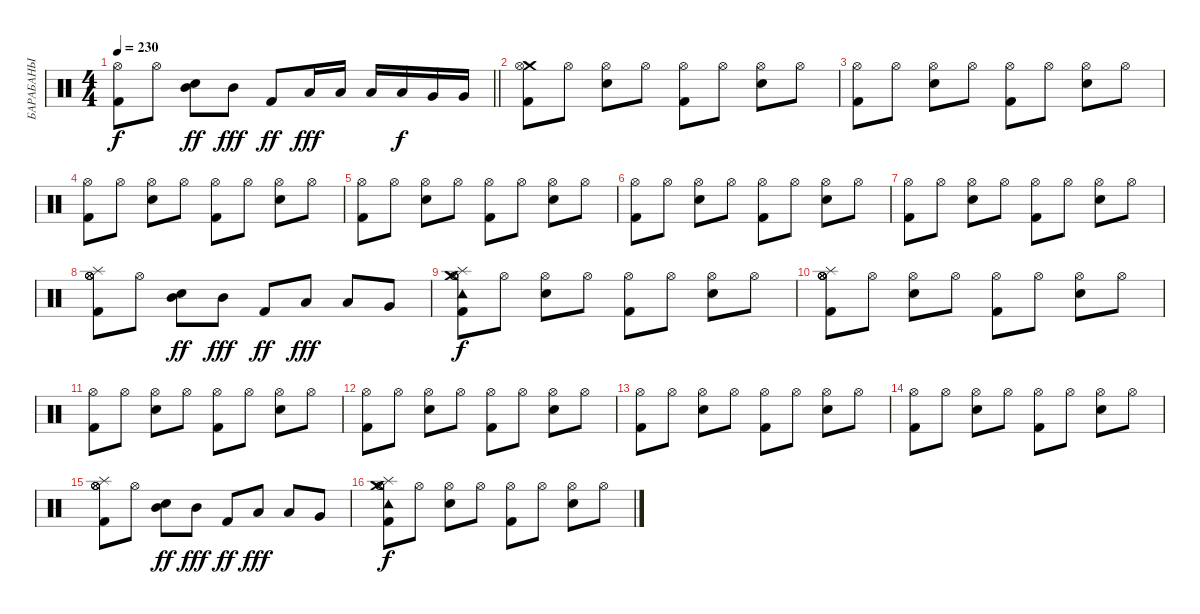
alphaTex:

\track ("БАРАБАНЫ" "БАРАБАНЫ") {instrument percussion}
\staff {score}
\articulation defaults
\ts (4 4)
\tempo 230
\clef neutral
\barLineRight lightlight
\ks c
("Hi-Hat (open)" "Kick (hit) 2").8{dy f} "Hi-Hat (open)".8 ("Mid Tom (hit)" "Electric Snare (hit)").8{dy ff} "Mid Tom (hit)".8{dy fff} "Kick (hit) 2".8{dy ff} "Low Tom (hit)".16{dy fff} "Low Tom (hit)".16 "Low Tom (hit)".16 "Low Tom (hit)".16{dy f} "Very Low Tom (hit)".16 "Very Low Tom (hit)".16 |
("Crash medium (hit)" "Hi-Hat (open)" "Kick (hit) 2").8 "Hi-Hat (open)".8 ("Hi-Hat (open)" "Electric Snare (hit)").8 "Hi-Hat (open)".8 ("Hi-Hat (open)" "Kick (hit) 2").8 "Hi-Hat (open)".8 ("Hi-Hat (open)" "Electric Snare (hit)").8 "Hi-Hat (open)".8 |
("Hi-Hat (open)" "Kick (hit) 2").8 "Hi-Hat (open)".8 ("Hi-Hat (open)" "Electric Snare (hit)").8 "Hi-Hat (open)".8 ("Hi-Hat (open)" "Kick (hit) 2").8 "Hi-Hat (open)".8 ("Hi-Hat (open)" "Electric Snare (hit)").8 "Hi-Hat (open)".8 |
("Hi-Hat (open)" "Kick (hit) 2").8 "Hi-Hat (open)".8 ("Hi-Hat (open)" "Electric Snare (hit)").8 "Hi-Hat (open)".8 ("Hi-Hat (open)" "Kick (hit) 2").8 "Hi-Hat (open)".8 ("Hi-Hat (open)" "Electric Snare (hit)").8 "Hi-Hat (open)".8 |
("Hi-Hat (open)" "Kick (hit) 2").8 "Hi-Hat (open)".8 ("Hi-Hat (open)" "Electric Snare (hit)").8 "Hi-Hat (open)".8 ("Hi-Hat (open)" "Kick (hit) 2").8 "Hi-Hat (open)".8 ("Hi-Hat (open)" "Electric Snare (hit)").8 "Hi-Hat (open)".8 |
("Hi-Hat (open)" "Kick (hit) 2").8 "Hi-Hat (open)".8 ("Hi-Hat (open)" "Electric Snare (hit)").8 "Hi-Hat (open)".8 ("Hi-Hat (open)" "Kick (hit) 2").8 "Hi-Hat (open)".8 ("Hi-Hat (open)" "Electric Snare (hit)").8 "Hi-Hat (open)".8 |
("Hi-Hat (open)" "Kick (hit) 2").8 "Hi-Hat (open)".8 ("Hi-Hat (open)" "Electric Snare (hit)").8 "Hi-Hat (open)".8 ("Hi-Hat (open)" "Kick (hit) 2").8 "Hi-Hat (open)".8 ("Hi-Hat (open)" "Electric Snare (hit)").8 "Hi-Hat (open)".8 |
("Hi-Hat (open)" "Hi-Hat (open)" "Splash (hit)" "Hi-Hat (open)" "Kick (hit) 2").8 "Hi-Hat (open)".8 ("Mid Tom (hit)" "Electric Snare (hit)").8{dy ff} "Mid Tom (hit)".8{dy fff} "Kick (hit) 2".8{dy ff} "Low Tom (hit)".8{dy fff} "Low Tom (hit)".8 "Very Low Tom (hit)".8 |
("Crash medium (hit)" "Hi-Hat (open)" "Splash (hit)" "Tambourine (hit)" "Hi-Hat (open)" "Kick (hit) 2").8{dy f} "Hi-Hat (open)".8 ("Hi-Hat (open)" "Electric Snare (hit)").8 "Hi-Hat (open)".8 ("Hi-Hat (open)" "Kick (hit) 2").8 "Hi-Hat (open)".8 ("Hi-Hat (open)" "Electric Snare (hit)").8 "Hi-Hat (open)".8 |
("Hi-Hat (open)" "Hi-Hat (open)" "Splash (hit)" "Hi-Hat (open)" "Hi-Hat (open)" "Kick (hit) 2").8 "Hi-Hat (open)".8 ("Hi-Hat (open)" "Electric Snare (hit)").8 "Hi-Hat (open)".8 ("Hi-Hat (open)" "Kick (hit) 2").8 "Hi-Hat (open)".8 ("Hi-Hat (open)" "Electric Snare (hit)").8 "Hi-Hat (open)".8 |
("Hi-Hat (open)" "Kick (hit) 2").8 "Hi-Hat (open)".8 ("Hi-Hat (open)" "Electric Snare (hit)").8 "Hi-Hat (open)".8 ("Hi-Hat (open)" "Kick (hit) 2").8 "Hi-Hat (open)".8 ("Hi-Hat (open)" "Electric Snare (hit)").8 "Hi-Hat (open)".8 |
("Hi-Hat (open)" "Kick (hit) 2").8 "Hi-Hat (open)".8 ("Hi-Hat (open)" "Electric Snare (hit)").8 "Hi-Hat (open)".8 ("Hi-Hat (open)" "Kick (hit) 2").8 "Hi-Hat (open)".8 ("Hi-Hat (open)" "Electric Snare (hit)").8 "Hi-Hat (open)".8 |
("Hi-Hat (open)" "Kick (hit) 2").8 "Hi-Hat (open)".8 ("Hi-Hat (open)" "Electric Snare (hit)").8 "Hi-Hat (open)".8 ("Hi-Hat (open)" "Kick (hit) 2").8 "Hi-Hat (open)".8 ("Hi-Hat (open)" "Electric Snare (hit)").8 "Hi-Hat (open)".8 |
("Hi-Hat (open)" "Kick (hit) 2").8 "Hi-Hat (open)".8 ("Hi-Hat (open)" "Electric Snare (hit)").8 "Hi-Hat (open)".8 ("Hi-Hat (open)" "Kick (hit) 2").8 "Hi-Hat (open)".8 ("Hi-Hat (open)" "Electric Snare (hit)").8 "Hi-Hat (open)".8 |
("Hi-Hat (open)" "Hi-Hat (open)" "Splash (hit)" "Hi-Hat (open)" "Kick (hit) 2").8 "Hi-Hat (open)".8 ("Mid Tom (hit)" "Electric Snare (hit)").8{dy ff} "Mid Tom (hit)".8{dy fff} "Kick (hit) 2".8{dy ff} "Low Tom (hit)".8{dy fff} "Low Tom (hit)".8 "Very Low Tom (hit)".8 |
("Crash medium (hit)" "Hi-Hat (open)" "Splash (hit)" "Tambourine (hit)" "Hi-Hat (open)" "Kick (hit) 2").8{dy f} "Hi-Hat (open)".8 ("Hi-Hat (open)" "Electric Snare (hit)").8 "Hi-Hat (open)".8 ("Hi-Hat (open)" "Kick (hit) 2").8 "Hi-Hat (open)".8 ("Hi-Hat (open)" "Electric Snare (hit)").8 "Hi-Hat (open)".8
